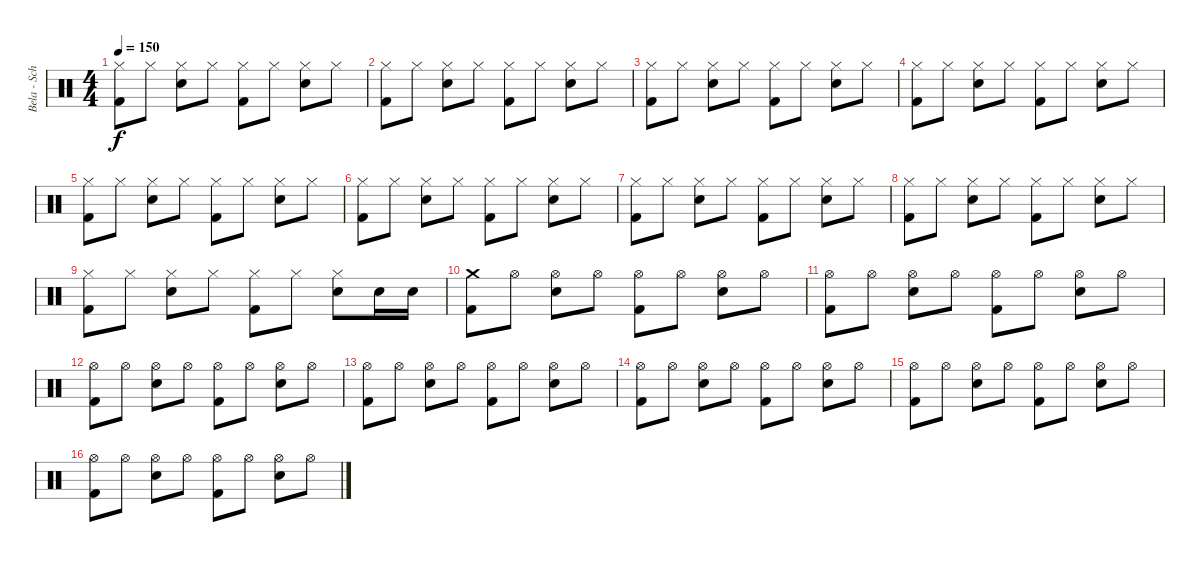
\track ("Bela - Schlagzeug" "Bela - Sch") {instrument percussion}
\staff {score}
\articulation defaults
\ts (4 4)
\tempo 150
\clef neutral
\ks c
("Hi-Hat (closed)" "Kick (hit) 2").8{dy f} "Hi-Hat (closed)".8 ("Hi-Hat (closed)" "Snare (hit) 2").8 "Hi-Hat (closed)".8 ("Hi-Hat (closed)" "Kick (hit) 2").8 "Hi-Hat (closed)".8 ("Hi-Hat (closed)" "Snare (hit) 2").8 "Hi-Hat (closed)".8 |
("Hi-Hat (closed)" "Kick (hit) 2").8 "Hi-Hat (closed)".8 ("Hi-Hat (closed)" "Snare (hit) 2").8 "Hi-Hat (closed)".8 ("Hi-Hat (closed)" "Kick (hit) 2").8 "Hi-Hat (closed)".8 ("Hi-Hat (closed)" "Snare (hit) 2").8 "Hi-Hat (closed)".8 |
("Hi-Hat (closed)" "Kick (hit) 2").8 "Hi-Hat (closed)".8 ("Hi-Hat (closed)" "Snare (hit) 2").8 "Hi-Hat (closed)".8 ("Hi-Hat (closed)" "Kick (hit) 2").8 "Hi-Hat (closed)".8 ("Hi-Hat (closed)" "Snare (hit) 2").8 "Hi-Hat (closed)".8 |
("Hi-Hat (closed)" "Kick (hit) 2").8 "Hi-Hat (closed)".8 ("Hi-Hat (closed)" "Snare (hit) 2").8 "Hi-Hat (closed)".8 ("Hi-Hat (closed)" "Kick (hit) 2").8 "Hi-Hat (closed)".8 ("Hi-Hat (closed)" "Snare (hit) 2").8 "Hi-Hat (closed)".8 |
("Hi-Hat (closed)" "Kick (hit) 2").8 "Hi-Hat (closed)".8 ("Hi-Hat (closed)" "Snare (hit) 2").8 "Hi-Hat (closed)".8 ("Hi-Hat (closed)" "Kick (hit) 2").8 "Hi-Hat (closed)".8 ("Hi-Hat (closed)" "Snare (hit) 2").8 "Hi-Hat (closed)".8 |
("Hi-Hat (closed)" "Kick (hit) 2").8 "Hi-Hat (closed)".8 ("Hi-Hat (closed)" "Snare (hit) 2").8 "Hi-Hat (closed)".8 ("Hi-Hat (closed)" "Kick (hit) 2").8 "Hi-Hat (closed)".8 ("Hi-Hat (closed)" "Snare (hit) 2").8 "Hi-Hat (closed)".8 |
("Hi-Hat (closed)" "Kick (hit) 2").8 "Hi-Hat (closed)".8 ("Hi-Hat (closed)" "Snare (hit) 2").8 "Hi-Hat (closed)".8 ("Hi-Hat (closed)" "Kick (hit) 2").8 "Hi-Hat (closed)".8 ("Hi-Hat (closed)" "Snare (hit) 2").8 "Hi-Hat (closed)".8 |
("Hi-Hat (closed)" "Kick (hit) 2").8 "Hi-Hat (closed)".8 ("Hi-Hat (closed)" "Snare (hit) 2").8 "Hi-Hat (closed)".8 ("Hi-Hat (closed)" "Kick (hit) 2").8 "Hi-Hat (closed)".8 ("Hi-Hat (closed)" "Snare (hit) 2").8 "Hi-Hat (closed)".8 |
("Hi-Hat (closed)" "Kick (hit) 2").8 "Hi-Hat (closed)".8 ("Hi-Hat (closed)" "Snare (hit) 2").8 "Hi-Hat (closed)".8 ("Hi-Hat (closed)" "Kick (hit) 2").8 "Hi-Hat (closed)".8 ("Hi-Hat (closed)" "Snare (hit) 2").8 "Snare (hit) 2".16 "Snare (hit) 2".16 |
("Crash medium (hit)" "Kick (hit) 2").8 "Hi-Hat (open)".8 ("Hi-Hat (open)" "Snare (hit) 2").8 "Hi-Hat (open)".8 ("Hi-Hat (open)" "Kick (hit) 2").8 "Hi-Hat (open)".8 ("Hi-Hat (open)" "Snare (hit) 2").8 "Hi-Hat (open)".8 |
("Hi-Hat (open)" "Kick (hit) 2").8 "Hi-Hat (open)".8 ("Hi-Hat (open)" "Snare (hit) 2").8 "Hi-Hat (open)".8 ("Hi-Hat (open)" "Kick (hit) 2").8 "Hi-Hat (open)".8 ("Hi-Hat (open)" "Snare (hit) 2").8 "Hi-Hat (open)".8 |
("Hi-Hat (open)" "Kick (hit) 2").8 "Hi-Hat (open)".8 ("Hi-Hat (open)" "Snare (hit) 2").8 "Hi-Hat (open)".8 ("Hi-Hat (open)" "Kick (hit) 2").8 "Hi-Hat (open)".8 ("Hi-Hat (open)" "Snare (hit) 2").8 "Hi-Hat (open)".8 |
("Hi-Hat (open)" "Kick (hit) 2").8 "Hi-Hat (open)".8 ("Hi-Hat (open)" "Snare (hit) 2").8 "Hi-Hat (open)".8 ("Hi-Hat (open)" "Kick (hit) 2").8 "Hi-Hat (open)".8 ("Hi-Hat (open)" "Snare (hit) 2").8 "Hi-Hat (open)".8 |
("Hi-Hat (open)" "Kick (hit) 2").8 "Hi-Hat (open)".8 ("Hi-Hat (open)" "Snare (hit) 2").8 "Hi-Hat (open)".8 ("Hi-Hat (open)" "Kick (hit) 2").8 "Hi-Hat (open)".8 ("Hi-Hat (open)" "Snare (hit) 2").8 "Hi-Hat (open)".8 |
("Hi-Hat (open)" "Kick (hit) 2").8 "Hi-Hat (open)".8 ("Hi-Hat (open)" "Snare (hit) 2").8 "Hi-Hat (open)".8 ("Hi-Hat (open)" "Kick (hit) 2").8 "Hi-Hat (open)".8 ("Hi-Hat (open)" "Snare (hit) 2").8 "Hi-Hat (open)".8 |
("Hi-Hat (open)" "Kick (hit) 2").8 "Hi-Hat (open)".8 ("Hi-Hat (open)" "Snare (hit) 2").8 "Hi-Hat (open)".8 ("Hi-Hat (open)" "Kick (hit) 2").8 "Hi-Hat (open)".8 ("Hi-Hat (open)" "Snare (hit) 2").8 "Hi-Hat (open)".8
